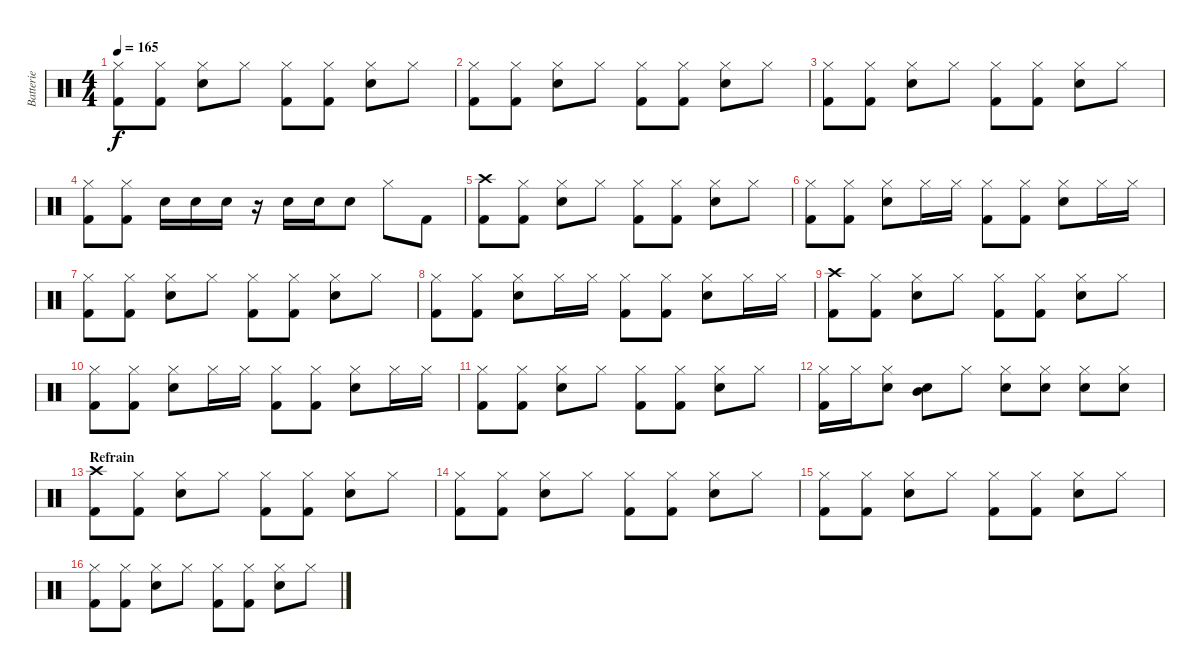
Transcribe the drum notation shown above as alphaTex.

\track ("Batterie" "Batterie") {instrument percussion}
\staff {score}
\articulation defaults
\ts (4 4)
\tempo 165
\clef neutral
\ks c
("Hi-Hat (closed)" "Kick (hit) 2").8{dy f} ("Hi-Hat (closed)" "Kick (hit) 2").8 ("Hi-Hat (closed)" "Electric Snare (hit)").8 "Hi-Hat (closed)".8 ("Hi-Hat (closed)" "Kick (hit) 2").8 ("Hi-Hat (closed)" "Kick (hit) 2").8 ("Hi-Hat (closed)" "Electric Snare (hit)").8 "Hi-Hat (closed)".8 |
("Hi-Hat (closed)" "Kick (hit) 2").8 ("Hi-Hat (closed)" "Kick (hit) 2").8 ("Hi-Hat (closed)" "Electric Snare (hit)").8 "Hi-Hat (closed)".8 ("Hi-Hat (closed)" "Kick (hit) 2").8 ("Hi-Hat (closed)" "Kick (hit) 2").8 ("Hi-Hat (closed)" "Electric Snare (hit)").8 "Hi-Hat (closed)".8 |
("Hi-Hat (closed)" "Kick (hit) 2").8 ("Hi-Hat (closed)" "Kick (hit) 2").8 ("Hi-Hat (closed)" "Electric Snare (hit)").8 "Hi-Hat (closed)".8 ("Hi-Hat (closed)" "Kick (hit) 2").8 ("Hi-Hat (closed)" "Kick (hit) 2").8 ("Hi-Hat (closed)" "Electric Snare (hit)").8 "Hi-Hat (closed)".8 |
("Hi-Hat (closed)" "Kick (hit) 2").8 ("Hi-Hat (closed)" "Kick (hit) 2").8 "Electric Snare (hit)".16 "Electric Snare (hit)".16 "Electric Snare (hit)".16 r.16 "Electric Snare (hit)".16 "Electric Snare (hit)".16 "Electric Snare (hit)".8 "Hi-Hat (closed)".8 "Kick (hit) 2".8 |
("Crash high (hit)" "Kick (hit) 2").8 ("Hi-Hat (closed)" "Kick (hit) 2").8 ("Hi-Hat (closed)" "Electric Snare (hit)").8 "Hi-Hat (closed)".8 ("Hi-Hat (closed)" "Kick (hit) 2").8 ("Hi-Hat (closed)" "Kick (hit) 2").8 ("Hi-Hat (closed)" "Electric Snare (hit)").8 "Hi-Hat (closed)".8 |
("Hi-Hat (closed)" "Kick (hit) 2").8 ("Hi-Hat (closed)" "Kick (hit) 2").8 ("Hi-Hat (closed)" "Electric Snare (hit)").8 "Hi-Hat (closed)".16 "Hi-Hat (closed)".16 ("Hi-Hat (closed)" "Kick (hit) 2").8 ("Hi-Hat (closed)" "Kick (hit) 2").8 ("Hi-Hat (closed)" "Electric Snare (hit)").8 "Hi-Hat (closed)".16 "Hi-Hat (closed)".16 |
("Hi-Hat (closed)" "Kick (hit) 2").8 ("Hi-Hat (closed)" "Kick (hit) 2").8 ("Hi-Hat (closed)" "Electric Snare (hit)").8 "Hi-Hat (closed)".8 ("Hi-Hat (closed)" "Kick (hit) 2").8 ("Hi-Hat (closed)" "Kick (hit) 2").8 ("Hi-Hat (closed)" "Electric Snare (hit)").8 "Hi-Hat (closed)".8 |
("Hi-Hat (closed)" "Kick (hit) 2").8 ("Hi-Hat (closed)" "Kick (hit) 2").8 ("Hi-Hat (closed)" "Electric Snare (hit)").8 "Hi-Hat (closed)".16 "Hi-Hat (closed)".16 ("Hi-Hat (closed)" "Kick (hit) 2").8 ("Hi-Hat (closed)" "Kick (hit) 2").8 ("Hi-Hat (closed)" "Electric Snare (hit)").8 "Hi-Hat (closed)".16 "Hi-Hat (closed)".16 |
("Crash high (hit)" "Kick (hit) 2").8 ("Hi-Hat (closed)" "Kick (hit) 2").8 ("Hi-Hat (closed)" "Electric Snare (hit)").8 "Hi-Hat (closed)".8 ("Hi-Hat (closed)" "Kick (hit) 2").8 ("Hi-Hat (closed)" "Kick (hit) 2").8 ("Hi-Hat (closed)" "Electric Snare (hit)").8 "Hi-Hat (closed)".8 |
("Hi-Hat (closed)" "Kick (hit) 2").8 ("Hi-Hat (closed)" "Kick (hit) 2").8 ("Hi-Hat (closed)" "Electric Snare (hit)").8 "Hi-Hat (closed)".16 "Hi-Hat (closed)".16 ("Hi-Hat (closed)" "Kick (hit) 2").8 ("Hi-Hat (closed)" "Kick (hit) 2").8 ("Hi-Hat (closed)" "Electric Snare (hit)").8 "Hi-Hat (closed)".16 "Hi-Hat (closed)".16 |
("Hi-Hat (closed)" "Kick (hit) 2").8 ("Hi-Hat (closed)" "Kick (hit) 2").8 ("Hi-Hat (closed)" "Electric Snare (hit)").8 "Hi-Hat (closed)".8 ("Hi-Hat (closed)" "Kick (hit) 2").8 ("Hi-Hat (closed)" "Kick (hit) 2").8 ("Hi-Hat (closed)" "Electric Snare (hit)").8 "Hi-Hat (closed)".8 |
("Hi-Hat (closed)" "Kick (hit) 2").16 "Hi-Hat (closed)".16 ("Hi-Hat (closed)" "Electric Snare (hit)").8 ("Mid Tom (hit)" "Electric Snare (hit)").8 "Hi-Hat (closed)".8 ("Hi-Hat (closed)" "Electric Snare (hit)").8 ("Hi-Hat (closed)" "Electric Snare (hit)").8 ("Hi-Hat (closed)" "Electric Snare (hit)").8 ("Hi-Hat (closed)" "Electric Snare (hit)").8 |
\section ("" "Refrain")
("Crash high (hit)" "Kick (hit) 2").8 ("Hi-Hat (closed)" "Kick (hit) 2").8 ("Hi-Hat (closed)" "Electric Snare (hit)").8 "Hi-Hat (closed)".8 ("Hi-Hat (closed)" "Kick (hit) 2").8 ("Hi-Hat (closed)" "Kick (hit) 2").8 ("Hi-Hat (closed)" "Electric Snare (hit)").8 "Hi-Hat (closed)".8 |
("Hi-Hat (closed)" "Kick (hit) 2").8 ("Hi-Hat (closed)" "Kick (hit) 2").8 ("Hi-Hat (closed)" "Electric Snare (hit)").8 "Hi-Hat (closed)".8 ("Hi-Hat (closed)" "Kick (hit) 2").8 ("Hi-Hat (closed)" "Kick (hit) 2").8 ("Hi-Hat (closed)" "Electric Snare (hit)").8 "Hi-Hat (closed)".8 |
("Hi-Hat (closed)" "Kick (hit) 2").8 ("Hi-Hat (closed)" "Kick (hit) 2").8 ("Hi-Hat (closed)" "Electric Snare (hit)").8 "Hi-Hat (closed)".8 ("Hi-Hat (closed)" "Kick (hit) 2").8 ("Hi-Hat (closed)" "Kick (hit) 2").8 ("Hi-Hat (closed)" "Electric Snare (hit)").8 "Hi-Hat (closed)".8 |
("Hi-Hat (closed)" "Kick (hit) 2").8 ("Hi-Hat (closed)" "Kick (hit) 2").8 ("Hi-Hat (closed)" "Electric Snare (hit)").8 "Hi-Hat (closed)".8 ("Hi-Hat (closed)" "Kick (hit) 2").8 ("Hi-Hat (closed)" "Kick (hit) 2").8 ("Hi-Hat (closed)" "Electric Snare (hit)").8 "Hi-Hat (closed)".8
